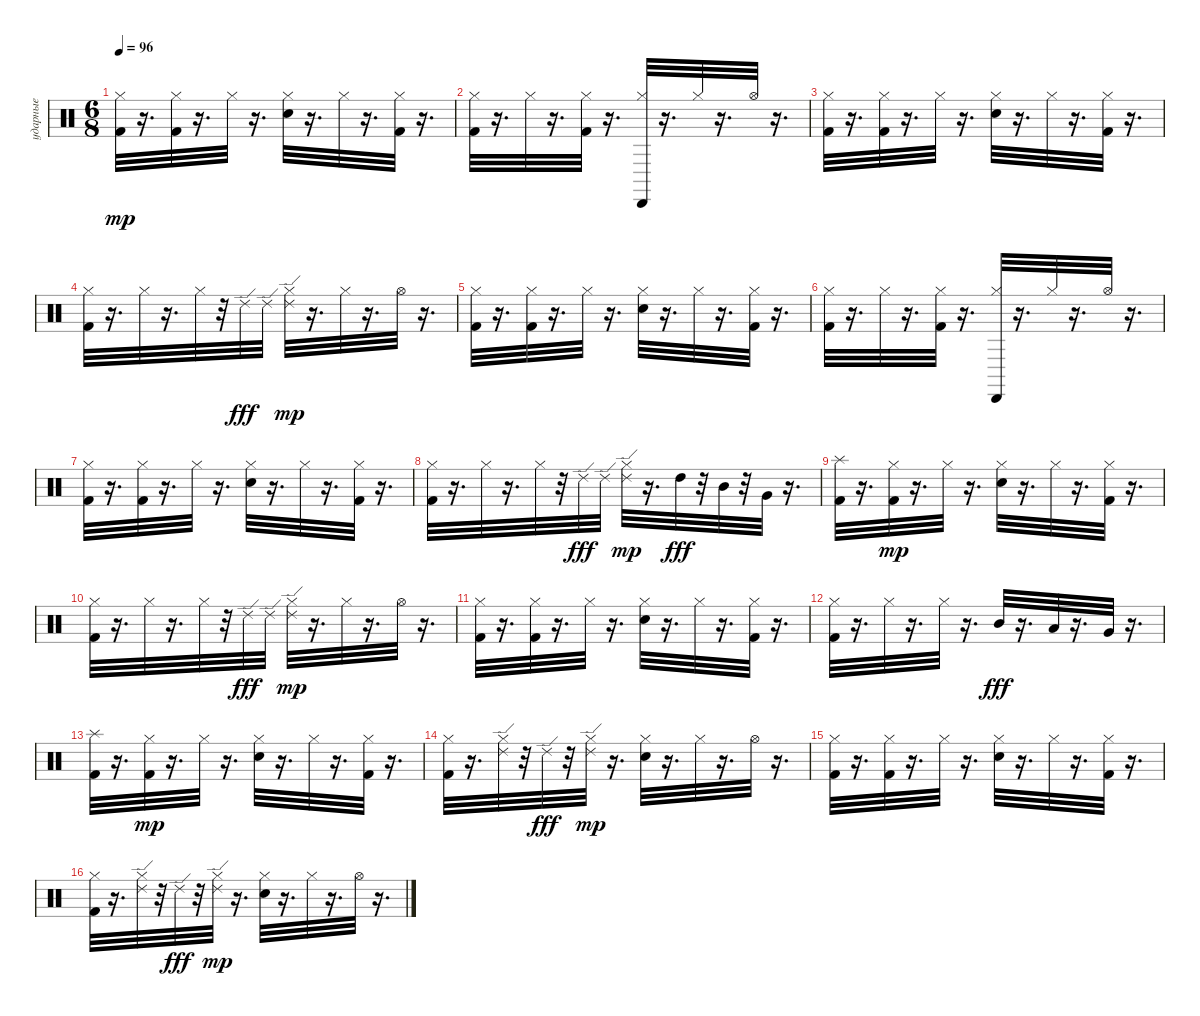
\track ("ударные" "ударные") {instrument percussion}
\staff {score}
\articulation defaults
\ts (6 8)
\tempo 96
\clef neutral
\ks c
("Kick (hit) 2" "Hi-Hat (closed)").32{dy mp} r.16{d} ("Kick (hit) 2" "Hi-Hat (closed)").32 r.16{d} "Hi-Hat (closed)".32 r.16{d} ("Snare (hit) 2" "Hi-Hat (closed)").32 r.16{d} "Hi-Hat (closed)".32 r.16{d} ("Kick (hit) 2" "Hi-Hat (closed)").32 r.16{d} |
("Kick (hit) 2" "Hi-Hat (closed)").32 r.16{d} "Hi-Hat (closed)".32 r.16{d} ("Kick (hit) 2" "Hi-Hat (closed)").32 r.16{d} ("Cabasa (hit)" "Hi-Hat (closed)").32 r.16{d} "Hi-Hat (closed)".32 r.16{d} "Hi-Hat (open)".32 r.16{d} |
("Kick (hit) 2" "Hi-Hat (closed)").32 r.16{d} ("Kick (hit) 2" "Hi-Hat (closed)").32 r.16{d} "Hi-Hat (closed)".32 r.16{d} ("Snare (hit) 2" "Hi-Hat (closed)").32 r.16{d} "Hi-Hat (closed)".32 r.16{d} ("Kick (hit) 2" "Hi-Hat (closed)").32 r.16{d} |
("Kick (hit) 2" "Hi-Hat (closed)").32 r.16{d} "Hi-Hat (closed)".32 r.16{d} "Hi-Hat (closed)".32 r.32 "Ride (edge) 2".32{dy fff} "Ride (edge) 2".32 ("Ride (edge) 2" "Hi-Hat (closed)").32{dy mp} r.16{d} "Hi-Hat (closed)".32 r.16{d} "Hi-Hat (open)".32 r.16{d} |
("Kick (hit) 2" "Hi-Hat (closed)").32 r.16{d} ("Kick (hit) 2" "Hi-Hat (closed)").32 r.16{d} "Hi-Hat (closed)".32 r.16{d} ("Snare (hit) 2" "Hi-Hat (closed)").32 r.16{d} "Hi-Hat (closed)".32 r.16{d} ("Kick (hit) 2" "Hi-Hat (closed)").32 r.16{d} |
("Kick (hit) 2" "Hi-Hat (closed)").32 r.16{d} "Hi-Hat (closed)".32 r.16{d} ("Kick (hit) 2" "Hi-Hat (closed)").32 r.16{d} ("Cabasa (hit)" "Hi-Hat (closed)").32 r.16{d} "Hi-Hat (closed)".32 r.16{d} "Hi-Hat (open)".32 r.16{d} |
("Kick (hit) 2" "Hi-Hat (closed)").32 r.16{d} ("Kick (hit) 2" "Hi-Hat (closed)").32 r.16{d} "Hi-Hat (closed)".32 r.16{d} ("Snare (hit) 2" "Hi-Hat (closed)").32 r.16{d} "Hi-Hat (closed)".32 r.16{d} ("Kick (hit) 2" "Hi-Hat (closed)").32 r.16{d} |
("Kick (hit) 2" "Hi-Hat (closed)").32 r.16{d} "Hi-Hat (closed)".32 r.16{d} "Hi-Hat (closed)".32 r.32 "Ride (edge) 2".32{dy fff} "Ride (edge) 2".32 ("Ride (edge) 2" "Hi-Hat (closed)").32{dy mp} r.16{d} "High Tom (hit)".32{dy fff} r.32 "Mid Tom (hit)".32 r.32 "Very Low Tom (hit)".32 r.16{d} |
("Splash (hit)" "Kick (hit) 2").32 r.16{d} ("Kick (hit) 2" "Hi-Hat (closed)").32{dy mp} r.16{d} "Hi-Hat (closed)".32 r.16{d} ("Snare (hit) 2" "Hi-Hat (closed)").32 r.16{d} "Hi-Hat (closed)".32 r.16{d} ("Kick (hit) 2" "Hi-Hat (closed)").32 r.16{d} |
("Kick (hit) 2" "Hi-Hat (closed)").32 r.16{d} "Hi-Hat (closed)".32 r.16{d} "Hi-Hat (closed)".32 r.32 "Ride (edge) 2".32{dy fff} "Ride (edge) 2".32 ("Ride (edge) 2" "Hi-Hat (closed)").32{dy mp} r.16{d} "Hi-Hat (closed)".32 r.16{d} "Hi-Hat (open)".32 r.16{d} |
("Kick (hit) 2" "Hi-Hat (closed)").32 r.16{d} ("Kick (hit) 2" "Hi-Hat (closed)").32 r.16{d} "Hi-Hat (closed)".32 r.16{d} ("Snare (hit) 2" "Hi-Hat (closed)").32 r.16{d} "Hi-Hat (closed)".32 r.16{d} ("Kick (hit) 2" "Hi-Hat (closed)").32 r.16{d} |
("Kick (hit) 2" "Hi-Hat (closed)").32 r.16{d} "Hi-Hat (closed)".32 r.16{d} "Hi-Hat (closed)".32 r.16{d} "Mid Tom (hit)".32{dy fff} r.16{d} "Low Tom (hit)".32 r.16{d} "Very Low Tom (hit)".32 r.16{d} |
("Kick (hit) 2" "Splash (hit)").32 r.16{d} ("Kick (hit) 2" "Hi-Hat (closed)").32{dy mp} r.16{d} "Hi-Hat (closed)".32 r.16{d} ("Snare (hit) 2" "Hi-Hat (closed)").32 r.16{d} "Hi-Hat (closed)".32 r.16{d} ("Kick (hit) 2" "Hi-Hat (closed)").32 r.16{d} |
("Kick (hit) 2" "Hi-Hat (closed)").32 r.16{d} ("Ride (edge) 2" "Hi-Hat (closed)").32 r.32 "Ride (edge) 2".32{dy fff} r.32 ("Ride (edge) 2" "Hi-Hat (closed)").32{dy mp} r.16{d} ("Snare (hit) 2" "Hi-Hat (closed)").32 r.16{d} "Hi-Hat (closed)".32 r.16{d} "Hi-Hat (open)".32 r.16{d} |
("Kick (hit) 2" "Hi-Hat (closed)").32 r.16{d} ("Kick (hit) 2" "Hi-Hat (closed)").32 r.16{d} "Hi-Hat (closed)".32 r.16{d} ("Snare (hit) 2" "Hi-Hat (closed)").32 r.16{d} "Hi-Hat (closed)".32 r.16{d} ("Kick (hit) 2" "Hi-Hat (closed)").32 r.16{d} |
("Kick (hit) 2" "Hi-Hat (closed)").32 r.16{d} ("Ride (edge) 2" "Hi-Hat (closed)").32 r.32 "Ride (edge) 2".32{dy fff} r.32 ("Ride (edge) 2" "Hi-Hat (closed)").32{dy mp} r.16{d} ("Snare (hit) 2" "Hi-Hat (closed)").32 r.16{d} "Hi-Hat (closed)".32 r.16{d} "Hi-Hat (open)".32 r.16{d}
